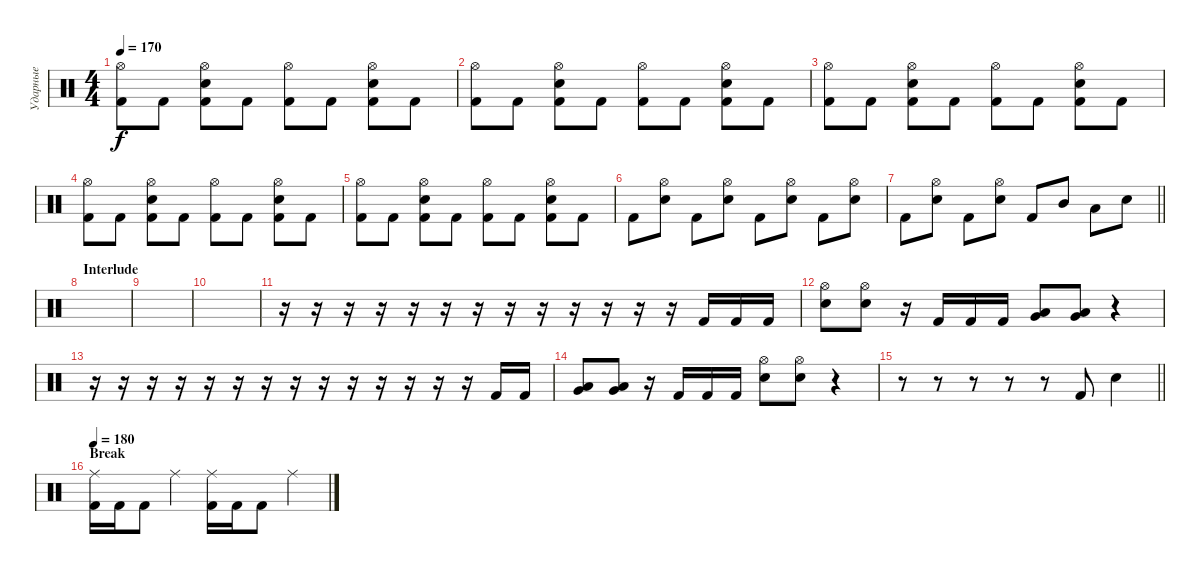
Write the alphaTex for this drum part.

\track ("Ударные" "Ударные") {instrument percussion}
\staff {score}
\articulation defaults
\ts (4 4)
\tempo 170
\clef neutral
\ks c
("Hi-Hat (open)" "Kick (hit) 2").8{dy f} "Kick (hit) 2".8 ("Hi-Hat (open)" "Electric Snare (hit)" "Kick (hit) 2").8 "Kick (hit) 2".8 ("Hi-Hat (open)" "Kick (hit) 2").8 "Kick (hit) 2".8 ("Hi-Hat (open)" "Electric Snare (hit)" "Kick (hit) 2").8 "Kick (hit) 2".8 |
("Hi-Hat (open)" "Kick (hit) 2").8 "Kick (hit) 2".8 ("Hi-Hat (open)" "Electric Snare (hit)" "Kick (hit) 2").8 "Kick (hit) 2".8 ("Hi-Hat (open)" "Kick (hit) 2").8 "Kick (hit) 2".8 ("Hi-Hat (open)" "Electric Snare (hit)" "Kick (hit) 2").8 "Kick (hit) 2".8 |
("Hi-Hat (open)" "Kick (hit) 2").8 "Kick (hit) 2".8 ("Hi-Hat (open)" "Electric Snare (hit)" "Kick (hit) 2").8 "Kick (hit) 2".8 ("Hi-Hat (open)" "Kick (hit) 2").8 "Kick (hit) 2".8 ("Hi-Hat (open)" "Electric Snare (hit)" "Kick (hit) 2").8 "Kick (hit) 2".8 |
("Hi-Hat (open)" "Kick (hit) 2").8 "Kick (hit) 2".8 ("Hi-Hat (open)" "Electric Snare (hit)" "Kick (hit) 2").8 "Kick (hit) 2".8 ("Hi-Hat (open)" "Kick (hit) 2").8 "Kick (hit) 2".8 ("Hi-Hat (open)" "Electric Snare (hit)" "Kick (hit) 2").8 "Kick (hit) 2".8 |
("Hi-Hat (open)" "Kick (hit) 2").8 "Kick (hit) 2".8 ("Hi-Hat (open)" "Electric Snare (hit)" "Kick (hit) 2").8 "Kick (hit) 2".8 ("Hi-Hat (open)" "Kick (hit) 2").8 "Kick (hit) 2".8 ("Hi-Hat (open)" "Electric Snare (hit)" "Kick (hit) 2").8 "Kick (hit) 2".8 |
"Kick (hit) 2".8 ("Hi-Hat (open)" "Electric Snare (hit)").8 "Kick (hit) 2".8 ("Hi-Hat (open)" "Electric Snare (hit)").8 "Kick (hit) 2".8 ("Hi-Hat (open)" "Electric Snare (hit)").8 "Kick (hit) 2".8 ("Hi-Hat (open)" "Electric Snare (hit)").8 |
\barLineRight lightlight "Kick (hit) 2".8
("Hi-Hat (open)" "Electric Snare (hit)").8 "Kick (hit) 2".8 ("Hi-Hat (open)" "Electric Snare (hit)").8 "Kick (hit) 2".8 "Mid Tom (hit)".8 "Low Tom (hit)".8 "Electric Snare (hit)".8 |
\section ("" "Interlude")
|
|
|
r.16 r.16 r.16 r.16 r.16 r.16 r.16 r.16 r.16 r.16 r.16 r.16 r.16 "Kick (hit) 2".16 "Kick (hit) 2".16 "Kick (hit) 2".16 |
("Hi-Hat (open)" "Electric Snare (hit)").8 ("Hi-Hat (open)" "Electric Snare (hit)").8 r.16 "Kick (hit) 2".16 "Kick (hit) 2".16 "Kick (hit) 2".16 ("Very Low Tom (hit)" "Low Floor Tom (hit)").8 ("Very Low Tom (hit)" "Low Floor Tom (hit)").8 r.4 |
r.16 r.16 r.16 r.16 r.16 r.16 r.16 r.16 r.16 r.16 r.16 r.16 r.16 r.16 "Kick (hit) 2".16 "Kick (hit) 2".16 |
("Very Low Tom (hit)" "Low Floor Tom (hit)").8 ("Very Low Tom (hit)" "Low Floor Tom (hit)").8 r.16 "Kick (hit) 2".16 "Kick (hit) 2".16 "Kick (hit) 2".16 ("Hi-Hat (open)" "Electric Snare (hit)").8 ("Hi-Hat (open)" "Electric Snare (hit)").8 r.4 |
\barLineRight lightlight
r.8 r.8 r.8 r.8 r.8 "Kick (hit) 2".8 "Electric Snare (hit)".4 |
\section ("" "Break")
\tempo 180
("Ride (middle)" "Kick (hit) 2").16 "Kick (hit) 2".16 "Kick (hit) 2".8 "Ride (middle)".4 ("Ride (middle)" "Kick (hit) 2").16 "Kick (hit) 2".16 "Kick (hit) 2".8 "Ride (middle)".4
